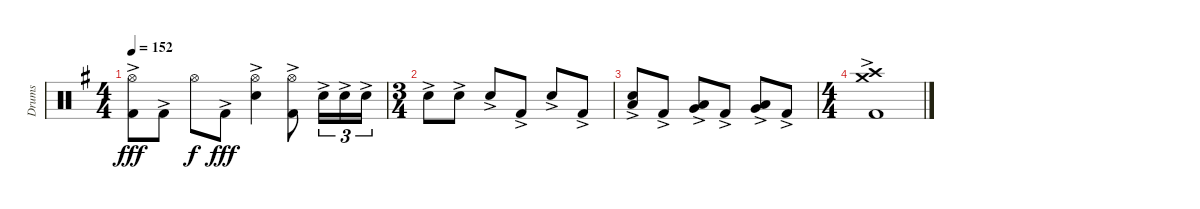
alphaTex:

\track ("Drums" "Drums") {instrument percussion}
\staff {score}
\articulation defaults
\ts (4 4)
\tempo 152
\clef neutral
\ks eminor
("Hi-Hat (open)" "Kick (hit) 2"{ac}).8{dy fff} "Kick (hit) 2"{ac}.8 "Hi-Hat (open)".8{dy f} "Kick (hit) 2"{ac}.8{dy fff} ("Hi-Hat (open)" "Snare (hit) 2"{ac}).4 ("Hi-Hat (open)" "Kick (hit) 2"{ac}).8 "Snare (hit) 2"{ac}.16{tu (3 2)} "Snare (hit) 2"{ac}.16{tu (3 2)} "Snare (hit) 2"{ac}.16{tu (3 2)} |
\ts (3 4)
"Snare (hit) 2"{ac}.8 "Snare (hit) 2"{ac}.8 "Snare (hit) 2"{ac}.8 "Kick (hit) 2"{ac}.8 "Snare (hit) 2"{ac}.8 "Kick (hit) 2"{ac}.8 |
("Snare (hit) 2"{ac} "Low Tom (hit)").8 "Kick (hit) 2"{ac}.8 ("Low Tom (hit)"{ac} "Very Low Tom (hit)"{ac}).8 "Kick (hit) 2"{ac}.8 ("Very Low Tom (hit)"{ac} "Low Floor Tom (hit)"{ac}).8 "Kick (hit) 2"{ac}.8 |
\ts (4 4)
("Crash high (hit)"{ac} "Crash medium (hit)"{ac} "Kick (hit) 2"{ac}).1
